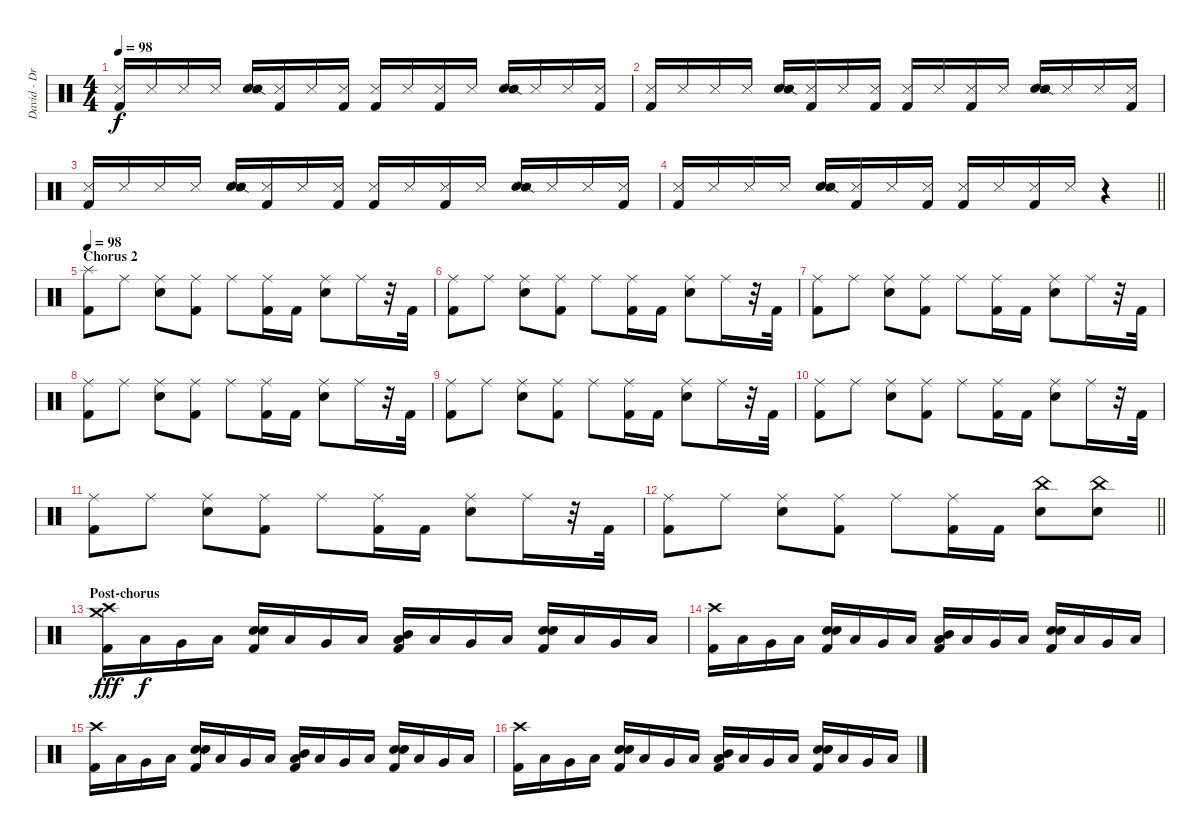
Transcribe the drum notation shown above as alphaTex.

\track ("David - Drums" "David - Dr") {instrument percussion}
\staff {score}
\articulation defaults
\ts (4 4)
\tempo 98
\clef neutral
\ks c
("Kick (hit) 2" "Metronome (hit)").16{dy f} "Metronome (hit)".16 "Metronome (hit)".16 "Metronome (hit)".16 ("Hand Clap (hit)" "Snare (side stick) 2").16 ("Kick (hit) 2" "Metronome (hit)").16 "Metronome (hit)".16 ("Kick (hit) 2" "Metronome (hit)").16 ("Kick (hit) 2" "Metronome (hit)").16 "Metronome (hit)".16 ("Kick (hit) 2" "Metronome (hit)").16 "Metronome (hit)".16 ("Hand Clap (hit)" "Snare (side stick) 2").16 "Metronome (hit)".16 "Metronome (hit)".16 ("Kick (hit) 2" "Metronome (hit)").16 |
("Kick (hit) 2" "Metronome (hit)").16 "Metronome (hit)".16 "Metronome (hit)".16 "Metronome (hit)".16 ("Hand Clap (hit)" "Snare (side stick) 2").16 ("Kick (hit) 2" "Metronome (hit)").16 "Metronome (hit)".16 ("Kick (hit) 2" "Metronome (hit)").16 ("Kick (hit) 2" "Metronome (hit)").16 "Metronome (hit)".16 ("Kick (hit) 2" "Metronome (hit)").16 "Metronome (hit)".16 ("Hand Clap (hit)" "Snare (side stick) 2").16 "Metronome (hit)".16 "Metronome (hit)".16 ("Kick (hit) 2" "Metronome (hit)").16 |
("Kick (hit) 2" "Metronome (hit)").16 "Metronome (hit)".16 "Metronome (hit)".16 "Metronome (hit)".16 ("Hand Clap (hit)" "Snare (side stick) 2").16 ("Kick (hit) 2" "Metronome (hit)").16 "Metronome (hit)".16 ("Kick (hit) 2" "Metronome (hit)").16 ("Kick (hit) 2" "Metronome (hit)").16 "Metronome (hit)".16 ("Kick (hit) 2" "Metronome (hit)").16 "Metronome (hit)".16 ("Hand Clap (hit)" "Snare (side stick) 2").16 "Metronome (hit)".16 "Metronome (hit)".16 ("Kick (hit) 2" "Metronome (hit)").16 |
\barLineRight lightlight
("Kick (hit) 2" "Metronome (hit)").16 "Metronome (hit)".16 "Metronome (hit)".16 "Metronome (hit)".16 ("Hand Clap (hit)" "Snare (side stick) 2").16 ("Kick (hit) 2" "Metronome (hit)").16 "Metronome (hit)".16 ("Kick (hit) 2" "Metronome (hit)").16 ("Kick (hit) 2" "Metronome (hit)").16 "Metronome (hit)".16 ("Kick (hit) 2" "Metronome (hit)").16 "Metronome (hit)".16 r.4 |
\section ("" "Chorus 2")
\tempo 98
("Splash (hit)" "Kick (hit) 2").8 "Ride (middle)".8 ("Ride (middle)" "Snare (hit) 2").8 ("Ride (middle)" "Kick (hit) 2").8 "Ride (middle)".8 ("Ride (middle)" "Kick (hit) 2").16 "Kick (hit) 2".16 ("Ride (middle)" "Snare (hit) 2").8 "Ride (middle)".16 r.32 "Kick (hit) 2".32 |
("Ride (middle)" "Kick (hit) 2").8 "Ride (middle)".8 ("Ride (middle)" "Snare (hit) 2").8 ("Ride (middle)" "Kick (hit) 2").8 "Ride (middle)".8 ("Ride (middle)" "Kick (hit) 2").16 "Kick (hit) 2".16 ("Ride (middle)" "Snare (hit) 2").8 "Ride (middle)".16 r.32 "Kick (hit) 2".32 |
("Ride (middle)" "Kick (hit) 2").8 "Ride (middle)".8 ("Ride (middle)" "Snare (hit) 2").8 ("Ride (middle)" "Kick (hit) 2").8 "Ride (middle)".8 ("Ride (middle)" "Kick (hit) 2").16 "Kick (hit) 2".16 ("Ride (middle)" "Snare (hit) 2").8 "Ride (middle)".16 r.32 "Kick (hit) 2".32 |
("Ride (middle)" "Kick (hit) 2").8 "Ride (middle)".8 ("Ride (middle)" "Snare (hit) 2").8 ("Ride (middle)" "Kick (hit) 2").8 "Ride (middle)".8 ("Ride (middle)" "Kick (hit) 2").16 "Kick (hit) 2".16 ("Ride (middle)" "Snare (hit) 2").8 "Ride (middle)".16 r.32 "Kick (hit) 2".32 |
("Ride (middle)" "Kick (hit) 2").8 "Ride (middle)".8 ("Ride (middle)" "Snare (hit) 2").8 ("Ride (middle)" "Kick (hit) 2").8 "Ride (middle)".8 ("Ride (middle)" "Kick (hit) 2").16 "Kick (hit) 2".16 ("Ride (middle)" "Snare (hit) 2").8 "Ride (middle)".16 r.32 "Kick (hit) 2".32 |
("Ride (middle)" "Kick (hit) 2").8 "Ride (middle)".8 ("Ride (middle)" "Snare (hit) 2").8 ("Ride (middle)" "Kick (hit) 2").8 "Ride (middle)".8 ("Ride (middle)" "Kick (hit) 2").16 "Kick (hit) 2".16 ("Ride (middle)" "Snare (hit) 2").8 "Ride (middle)".16 r.32 "Kick (hit) 2".32 |
("Ride (middle)" "Kick (hit) 2").8 "Ride (middle)".8 ("Ride (middle)" "Snare (hit) 2").8 ("Ride (middle)" "Kick (hit) 2").8 "Ride (middle)".8 ("Ride (middle)" "Kick (hit) 2").16 "Kick (hit) 2".16 ("Ride (middle)" "Snare (hit) 2").8 "Ride (middle)".16 r.32 "Kick (hit) 2".32 |
\barLineRight lightlight
("Ride (middle)" "Kick (hit) 2").8 "Ride (middle)".8 ("Ride (middle)" "Snare (hit) 2").8 ("Ride (middle)" "Kick (hit) 2").8 "Ride (middle)".8 ("Ride (middle)" "Kick (hit) 2").16 "Kick (hit) 2".16 ("China (hit)" "Snare (hit) 2").8 ("China (hit)" "Snare (hit) 2").8 |
\section ("" "Post-chorus")
("Crash medium (hit)" "Crash high (hit)" "Kick (hit) 2").16{dy fff} "Low Tom (hit)".16{dy f} "Very Low Tom (hit)".16 "Low Floor Tom (hit)".16 ("Electric Snare (hit)" "Electric Snare (hit)" "Kick (hit) 2").16{bd 240} "Low Tom (hit)".16 "Very Low Tom (hit)".16 "Low Floor Tom (hit)".16 ("Mid Tom (hit)" "Low Tom (hit)" "Kick (hit) 2").16{bd 240} "Low Tom (hit)".16 "Very Low Tom (hit)".16 "Low Floor Tom (hit)".16 ("Electric Snare (hit)" "Electric Snare (hit)" "Kick (hit) 2").16{bd 240} "Low Tom (hit)".16 "Very Low Tom (hit)".16 "Low Floor Tom (hit)".16 |
("Crash high (hit)" "Kick (hit) 2").16 "Low Tom (hit)".16 "Very Low Tom (hit)".16 "Low Floor Tom (hit)".16 ("Electric Snare (hit)" "Electric Snare (hit)" "Kick (hit) 2").16{bd 240} "Low Tom (hit)".16 "Very Low Tom (hit)".16 "Low Floor Tom (hit)".16 ("Mid Tom (hit)" "Low Tom (hit)" "Kick (hit) 2").16{bd 240} "Low Tom (hit)".16 "Very Low Tom (hit)".16 "Low Floor Tom (hit)".16 ("Electric Snare (hit)" "Electric Snare (hit)" "Kick (hit) 2").16{bd 240} "Low Tom (hit)".16 "Very Low Tom (hit)".16 "Low Floor Tom (hit)".16 |
("Crash high (hit)" "Kick (hit) 2").16 "Low Tom (hit)".16 "Very Low Tom (hit)".16 "Low Floor Tom (hit)".16 ("Electric Snare (hit)" "Electric Snare (hit)" "Kick (hit) 2").16{bd 240} "Low Tom (hit)".16 "Very Low Tom (hit)".16 "Low Floor Tom (hit)".16 ("Mid Tom (hit)" "Low Tom (hit)" "Kick (hit) 2").16{bd 240} "Low Tom (hit)".16 "Very Low Tom (hit)".16 "Low Floor Tom (hit)".16 ("Electric Snare (hit)" "Electric Snare (hit)" "Kick (hit) 2").16{bd 240} "Low Tom (hit)".16 "Very Low Tom (hit)".16 "Low Floor Tom (hit)".16 |
("Crash high (hit)" "Kick (hit) 2").16 "Low Tom (hit)".16 "Very Low Tom (hit)".16 "Low Floor Tom (hit)".16 ("Electric Snare (hit)" "Electric Snare (hit)" "Kick (hit) 2").16{bd 240} "Low Tom (hit)".16 "Very Low Tom (hit)".16 "Low Floor Tom (hit)".16 ("Mid Tom (hit)" "Low Tom (hit)" "Kick (hit) 2").16{bd 240} "Low Tom (hit)".16 "Very Low Tom (hit)".16 "Low Floor Tom (hit)".16 ("Electric Snare (hit)" "Electric Snare (hit)" "Kick (hit) 2").16{bd 240} "Low Tom (hit)".16 "Very Low Tom (hit)".16 "Low Floor Tom (hit)".16
